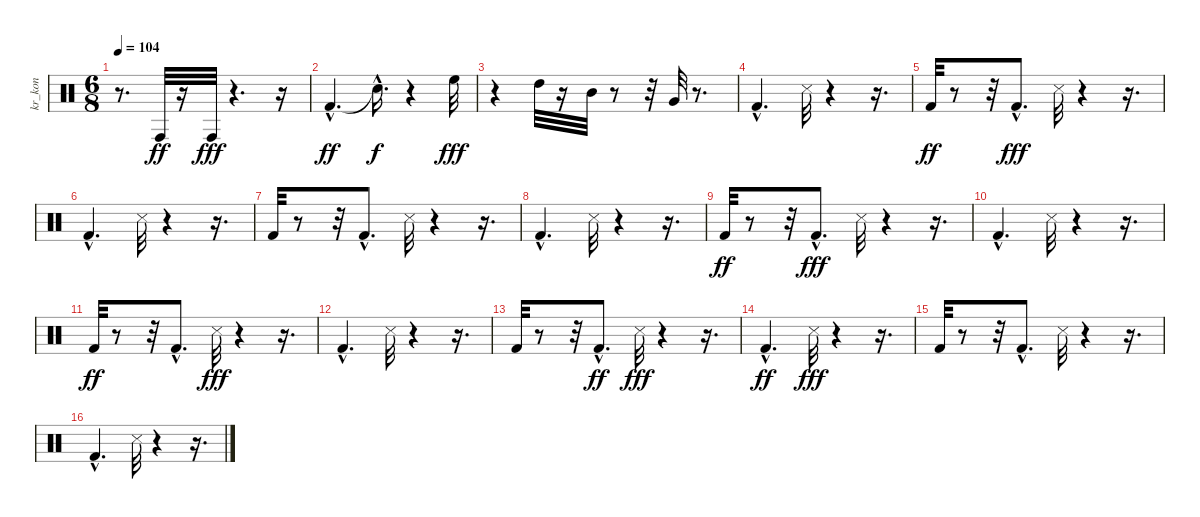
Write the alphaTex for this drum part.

\track ("kr_kon" "kr_kon") {instrument percussion}
\staff {score}
\articulation defaults
\ts (6 8)
\tempo 104
\clef neutral
\ks c
r.8{d dy ff} "Conga high (hit)".32 r.16 "Conga high (hit)".32{dy fff} r.4{d} r.16 |
"Kick (hit) 2"{hac}.4{d dy ff} "Snare (hit)"{hac t}.16{d dy f} r.4 "High Floor Tom (hit)".32{dy fff} |
r.4 "High Tom (hit)".32 r.16 "Mid Tom (hit)".32 r.8 r.32 "Very Low Tom (hit)".32 r.8{d} |
"Kick (hit) 2"{hac}.4{d} "Snare (side stick) 3".32 r.4 r.16{d} |
"Kick (hit) 2".32{dy ff} r.8 r.32 "Kick (hit) 2"{hac}.8{d dy fff} "Snare (side stick) 3".32 r.4 r.16{d} |
"Kick (hit) 2"{hac}.4{d} "Snare (side stick) 3".32 r.4 r.16{d} |
"Kick (hit) 2".32 r.8 r.32 "Kick (hit) 2"{hac}.8{d} "Snare (side stick) 3".32 r.4 r.16{d} |
"Kick (hit) 2"{hac}.4{d} "Snare (side stick) 3".32 r.4 r.16{d} |
"Kick (hit) 2".32{dy ff} r.8 r.32 "Kick (hit) 2"{hac}.8{d dy fff} "Snare (side stick) 3".32 r.4 r.16{d} |
"Kick (hit) 2"{hac}.4{d} "Snare (side stick) 3".32 r.4 r.16{d} |
"Kick (hit) 2".32{dy ff} r.8 r.32 "Kick (hit) 2"{hac}.8{d} "Snare (side stick) 3".32{dy fff} r.4 r.16{d} |
"Kick (hit) 2"{hac}.4{d} "Snare (side stick) 3".32 r.4 r.16{d} |
"Kick (hit) 2".32 r.8 r.32 "Kick (hit) 2"{hac}.8{d dy ff} "Snare (side stick) 3".32{dy fff} r.4 r.16{d} |
"Kick (hit) 2"{hac}.4{d dy ff} "Snare (side stick) 3".32{dy fff} r.4 r.16{d} |
"Kick (hit) 2".32 r.8 r.32 "Kick (hit) 2"{hac}.8{d} "Snare (side stick) 3".32 r.4 r.16{d} |
"Kick (hit) 2"{hac}.4{d} "Snare (side stick) 3".32 r.4 r.16{d}
